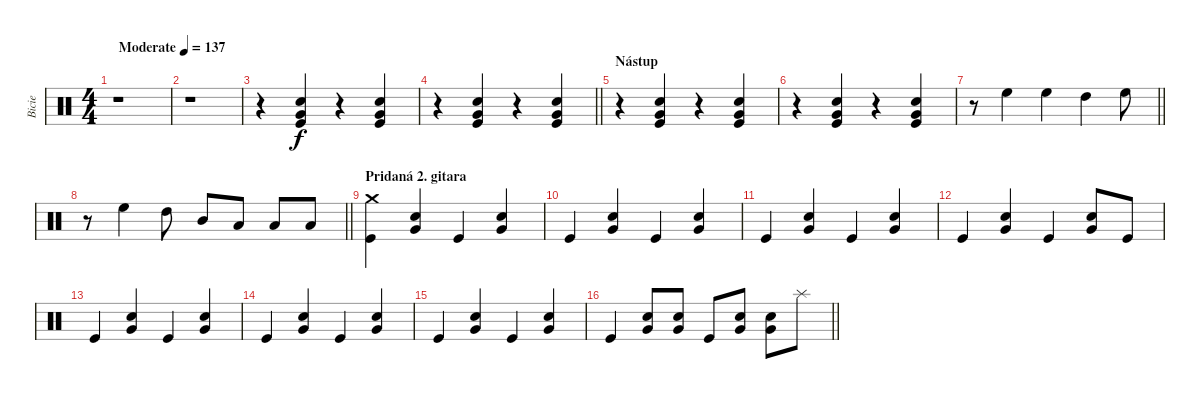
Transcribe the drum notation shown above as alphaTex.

\track ("Bicie" "Bicie") {instrument percussion}
\staff {score}
\articulation defaults
\ts (4 4)
\tempo (137 "Moderate")
\clef neutral
\ks c
r.1{dy f} |
r.1 |
r.4 ("Kick (hit)" "Snare (hit) 2" "Very Low Tom (hit)").4 r.4 ("Kick (hit)" "Snare (hit) 2" "Very Low Tom (hit)").4 |
\barLineRight lightlight
r.4 ("Kick (hit)" "Snare (hit) 2" "Very Low Tom (hit)").4 r.4 ("Kick (hit)" "Snare (hit) 2" "Very Low Tom (hit)").4 |
\section ("" "Nástup")
r.4 ("Kick (hit)" "Snare (hit) 2" "Very Low Tom (hit)").4 r.4 ("Kick (hit)" "Snare (hit) 2" "Very Low Tom (hit)").4 |
r.4 ("Kick (hit)" "Snare (hit) 2" "Very Low Tom (hit)").4 r.4 ("Kick (hit)" "Snare (hit) 2" "Very Low Tom (hit)").4 |
\barLineRight lightlight
r.8 "High Floor Tom (hit)".4 "High Floor Tom (hit)".4 "High Tom (hit)".4 "High Floor Tom (hit)".8 |
\section ("" "")
\barLineRight lightlight
r.8 "High Floor Tom (hit)".4 "High Tom (hit)".8 "Mid Tom (hit)".8 "Low Tom (hit)".8 "Low Tom (hit)".8 "Low Tom (hit)".8 |
\section ("" "Pridaná 2. gitara")
("Crash medium (hit)" "Kick (hit)").4 ("Very Low Tom (hit)" "Snare (hit) 2").4 "Kick (hit)".4 ("Very Low Tom (hit)" "Snare (hit) 2").4 |
"Kick (hit)".4 ("Very Low Tom (hit)" "Snare (hit) 2").4 "Kick (hit)".4 ("Very Low Tom (hit)" "Snare (hit) 2").4 |
"Kick (hit)".4 ("Very Low Tom (hit)" "Snare (hit) 2").4 "Kick (hit)".4 ("Very Low Tom (hit)" "Snare (hit) 2").4 |
"Kick (hit)".4 ("Very Low Tom (hit)" "Snare (hit) 2").4 "Kick (hit)".4 ("Very Low Tom (hit)" "Snare (hit) 2").8 "Kick (hit)".8 |
"Kick (hit)".4 ("Very Low Tom (hit)" "Snare (hit) 2").4 "Kick (hit)".4 ("Very Low Tom (hit)" "Snare (hit) 2").4 |
"Kick (hit)".4 ("Very Low Tom (hit)" "Snare (hit) 2").4 "Kick (hit)".4 ("Very Low Tom (hit)" "Snare (hit) 2").4 |
"Kick (hit)".4 ("Very Low Tom (hit)" "Snare (hit) 2").4 "Kick (hit)".4 ("Very Low Tom (hit)" "Snare (hit) 2").4 |
\barLineRight lightlight "Kick (hit)".4
("Very Low Tom (hit)" "Snare (hit) 2").8 ("Very Low Tom (hit)" "Snare (hit) 2").8 "Kick (hit)".8 ("Very Low Tom (hit)" "Snare (hit) 2").8 ("Very Low Tom (hit)" "Snare (hit) 2").8 "Splash (hit)".8
